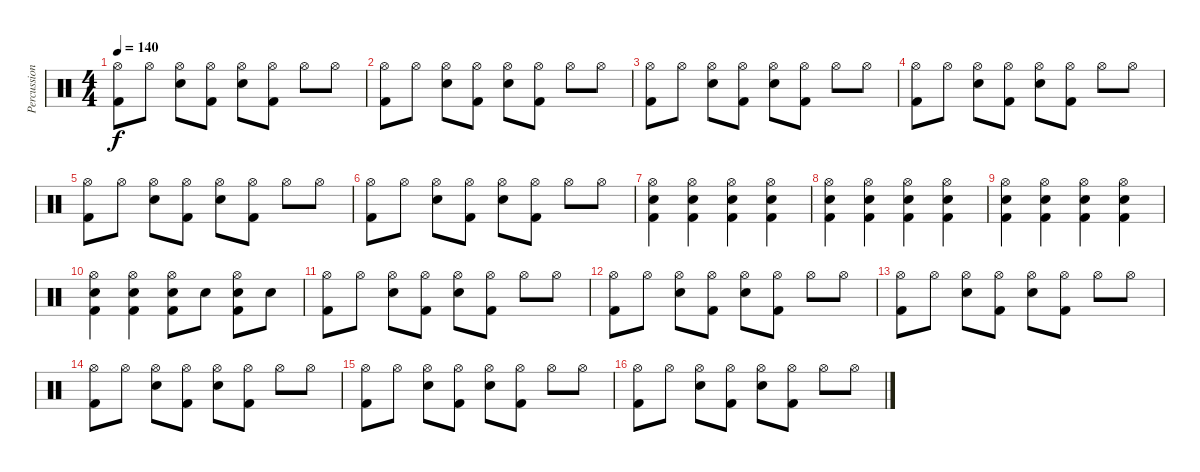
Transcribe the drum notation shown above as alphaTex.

\track ("Percussion" "Percussion") {instrument percussion}
\staff {score}
\articulation defaults
\ts (4 4)
\tempo 140
\clef neutral
\ks c
("Hi-Hat (open)" "Kick (hit) 2").8{dy f} "Hi-Hat (open)".8 ("Hi-Hat (open)" "Snare (hit) 2").8 ("Hi-Hat (open)" "Kick (hit) 2").8 ("Hi-Hat (open)" "Snare (hit) 2").8 ("Hi-Hat (open)" "Kick (hit) 2").8 "Hi-Hat (open)".8 "Hi-Hat (open)".8 |
("Hi-Hat (open)" "Kick (hit) 2").8 "Hi-Hat (open)".8 ("Hi-Hat (open)" "Snare (hit) 2").8 ("Hi-Hat (open)" "Kick (hit) 2").8 ("Hi-Hat (open)" "Snare (hit) 2").8 ("Hi-Hat (open)" "Kick (hit) 2").8 "Hi-Hat (open)".8 "Hi-Hat (open)".8 |
("Hi-Hat (open)" "Kick (hit) 2").8 "Hi-Hat (open)".8 ("Hi-Hat (open)" "Snare (hit) 2").8 ("Hi-Hat (open)" "Kick (hit) 2").8 ("Hi-Hat (open)" "Snare (hit) 2").8 ("Hi-Hat (open)" "Kick (hit) 2").8 "Hi-Hat (open)".8 "Hi-Hat (open)".8 |
("Hi-Hat (open)" "Kick (hit) 2").8 "Hi-Hat (open)".8 ("Hi-Hat (open)" "Snare (hit) 2").8 ("Hi-Hat (open)" "Kick (hit) 2").8 ("Hi-Hat (open)" "Snare (hit) 2").8 ("Hi-Hat (open)" "Kick (hit) 2").8 "Hi-Hat (open)".8 "Hi-Hat (open)".8 |
("Hi-Hat (open)" "Kick (hit) 2").8 "Hi-Hat (open)".8 ("Hi-Hat (open)" "Snare (hit) 2").8 ("Hi-Hat (open)" "Kick (hit) 2").8 ("Hi-Hat (open)" "Snare (hit) 2").8 ("Hi-Hat (open)" "Kick (hit) 2").8 "Hi-Hat (open)".8 "Hi-Hat (open)".8 |
("Hi-Hat (open)" "Kick (hit) 2").8 "Hi-Hat (open)".8 ("Hi-Hat (open)" "Snare (hit) 2").8 ("Hi-Hat (open)" "Kick (hit) 2").8 ("Hi-Hat (open)" "Snare (hit) 2").8 ("Hi-Hat (open)" "Kick (hit) 2").8 "Hi-Hat (open)".8 "Hi-Hat (open)".8 |
("Hi-Hat (open)" "Snare (hit) 2" "Kick (hit) 2").4 ("Hi-Hat (open)" "Snare (hit) 2" "Kick (hit) 2").4 ("Hi-Hat (open)" "Snare (hit) 2" "Kick (hit) 2").4 ("Hi-Hat (open)" "Snare (hit) 2" "Kick (hit) 2").4 |
("Hi-Hat (open)" "Snare (hit) 2" "Kick (hit) 2").4 ("Hi-Hat (open)" "Snare (hit) 2" "Kick (hit) 2").4 ("Hi-Hat (open)" "Snare (hit) 2" "Kick (hit) 2").4 ("Hi-Hat (open)" "Snare (hit) 2" "Kick (hit) 2").4 |
("Hi-Hat (open)" "Snare (hit) 2" "Kick (hit) 2").4 ("Hi-Hat (open)" "Snare (hit) 2" "Kick (hit) 2").4 ("Hi-Hat (open)" "Snare (hit) 2" "Kick (hit) 2").4 ("Hi-Hat (open)" "Snare (hit) 2" "Kick (hit) 2").4 |
("Hi-Hat (open)" "Snare (hit) 2" "Kick (hit) 2").4 ("Hi-Hat (open)" "Snare (hit) 2" "Kick (hit) 2").4 ("Hi-Hat (open)" "Snare (hit) 2" "Kick (hit) 2").8 "Snare (hit) 2".8 ("Hi-Hat (open)" "Snare (hit) 2" "Kick (hit) 2").8 "Snare (hit) 2".8 |
("Hi-Hat (open)" "Kick (hit) 2").8 "Hi-Hat (open)".8 ("Hi-Hat (open)" "Snare (hit) 2").8 ("Hi-Hat (open)" "Kick (hit) 2").8 ("Hi-Hat (open)" "Snare (hit) 2").8 ("Hi-Hat (open)" "Kick (hit) 2").8 "Hi-Hat (open)".8 "Hi-Hat (open)".8 |
("Hi-Hat (open)" "Kick (hit) 2").8 "Hi-Hat (open)".8 ("Hi-Hat (open)" "Snare (hit) 2").8 ("Hi-Hat (open)" "Kick (hit) 2").8 ("Hi-Hat (open)" "Snare (hit) 2").8 ("Hi-Hat (open)" "Kick (hit) 2").8 "Hi-Hat (open)".8 "Hi-Hat (open)".8 |
("Hi-Hat (open)" "Kick (hit) 2").8 "Hi-Hat (open)".8 ("Hi-Hat (open)" "Snare (hit) 2").8 ("Hi-Hat (open)" "Kick (hit) 2").8 ("Hi-Hat (open)" "Snare (hit) 2").8 ("Hi-Hat (open)" "Kick (hit) 2").8 "Hi-Hat (open)".8 "Hi-Hat (open)".8 |
("Hi-Hat (open)" "Kick (hit) 2").8 "Hi-Hat (open)".8 ("Hi-Hat (open)" "Snare (hit) 2").8 ("Hi-Hat (open)" "Kick (hit) 2").8 ("Hi-Hat (open)" "Snare (hit) 2").8 ("Hi-Hat (open)" "Kick (hit) 2").8 "Hi-Hat (open)".8 "Hi-Hat (open)".8 |
("Hi-Hat (open)" "Kick (hit) 2").8 "Hi-Hat (open)".8 ("Hi-Hat (open)" "Snare (hit) 2").8 ("Hi-Hat (open)" "Kick (hit) 2").8 ("Hi-Hat (open)" "Snare (hit) 2").8 ("Hi-Hat (open)" "Kick (hit) 2").8 "Hi-Hat (open)".8 "Hi-Hat (open)".8 |
("Hi-Hat (open)" "Kick (hit) 2").8 "Hi-Hat (open)".8 ("Hi-Hat (open)" "Snare (hit) 2").8 ("Hi-Hat (open)" "Kick (hit) 2").8 ("Hi-Hat (open)" "Snare (hit) 2").8 ("Hi-Hat (open)" "Kick (hit) 2").8 "Hi-Hat (open)".8 "Hi-Hat (open)".8
